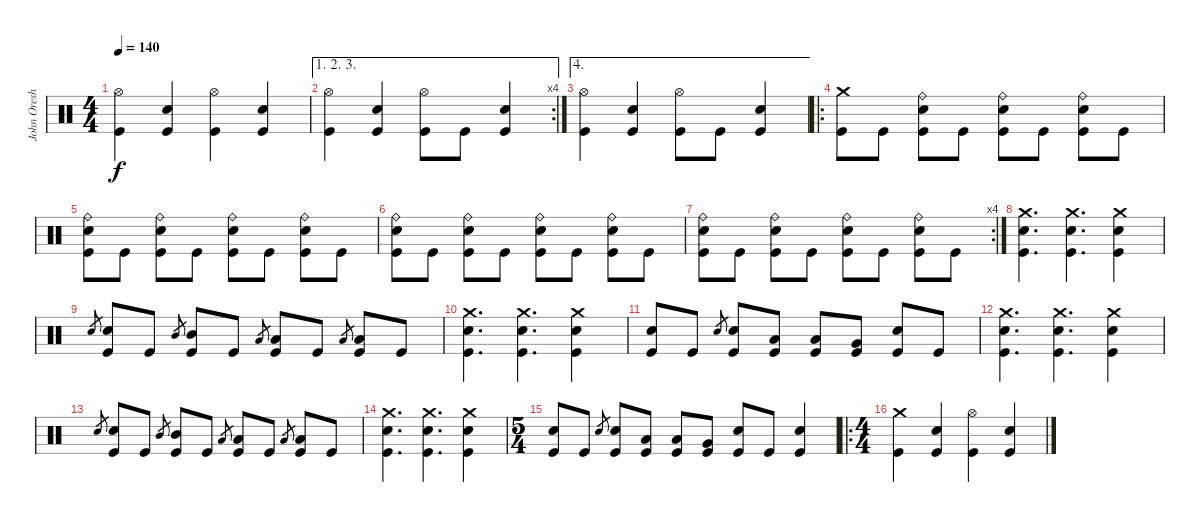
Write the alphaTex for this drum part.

\track ("John Oreshnick (drums)" "John Oresh") {instrument percussion}
\staff {score}
\articulation defaults
\ts (4 4)
\tempo 140
\clef neutral
\ks c
("Hi-Hat (open)" "Kick (hit)").4{dy f} ("Snare (hit) 2" "Kick (hit)").4 ("Hi-Hat (open)" "Kick (hit)").4 ("Snare (hit) 2" "Kick (hit)").4 |
\ae (1 2 3)
\rc 4
("Hi-Hat (open)" "Kick (hit)").4 ("Snare (hit) 2" "Kick (hit)").4 ("Hi-Hat (open)" "Kick (hit)").8 "Kick (hit)".8 ("Snare (hit) 2" "Kick (hit)").4 |
\ae 4
("Hi-Hat (open)" "Kick (hit)").4 ("Snare (hit) 2" "Kick (hit)").4 ("Hi-Hat (open)" "Kick (hit)").8 "Kick (hit)".8 ("Snare (hit) 2" "Kick (hit)").4 |
\ro
("Crash medium (hit)" "Kick (hit)").8 "Kick (hit)".8 ("Ride (bell)" "Snare (hit) 2" "Kick (hit)").8 "Kick (hit)".8 ("Ride (bell)" "Snare (hit) 2" "Kick (hit)").8 "Kick (hit)".8 ("Ride (bell)" "Snare (hit) 2" "Kick (hit)").8 "Kick (hit)".8 |
("Ride (bell)" "Snare (hit) 2" "Kick (hit)").8 "Kick (hit)".8 ("Ride (bell)" "Snare (hit) 2" "Kick (hit)").8 "Kick (hit)".8 ("Ride (bell)" "Snare (hit) 2" "Kick (hit)").8 "Kick (hit)".8 ("Ride (bell)" "Snare (hit) 2" "Kick (hit)").8 "Kick (hit)".8 |
("Ride (bell)" "Snare (hit) 2" "Kick (hit)").8 "Kick (hit)".8 ("Ride (bell)" "Snare (hit) 2" "Kick (hit)").8 "Kick (hit)".8 ("Ride (bell)" "Snare (hit) 2" "Kick (hit)").8 "Kick (hit)".8 ("Ride (bell)" "Snare (hit) 2" "Kick (hit)").8 "Kick (hit)".8 |
\rc 4
("Ride (bell)" "Snare (hit) 2" "Kick (hit)").8 "Kick (hit)".8 ("Ride (bell)" "Snare (hit) 2" "Kick (hit)").8 "Kick (hit)".8 ("Ride (bell)" "Snare (hit) 2" "Kick (hit)").8 "Kick (hit)".8 ("Ride (bell)" "Snare (hit) 2" "Kick (hit)").8 "Kick (hit)".8 |
("Crash medium (hit)" "Snare (hit) 2" "Kick (hit)").4{d} ("Crash medium (hit)" "Snare (hit) 2" "Kick (hit)").4{d} ("Crash medium (hit)" "Snare (hit) 2" "Kick (hit)").4 |
"Electric Snare (hit)".8{gr} ("Electric Snare (hit)" "Kick (hit)").8 "Kick (hit)".8 "Mid Tom (hit)".8{gr} ("Mid Tom (hit)" "Kick (hit)").8 "Kick (hit)".8 "Low Tom (hit)".8{gr} ("Low Tom (hit)" "Kick (hit)").8 "Kick (hit)".8 "Low Tom (hit)".8{gr} ("Low Tom (hit)" "Kick (hit)").8 "Kick (hit)".8 |
("Crash medium (hit)" "Snare (hit) 2" "Kick (hit)").4{d} ("Crash medium (hit)" "Snare (hit) 2" "Kick (hit)").4{d} ("Crash medium (hit)" "Snare (hit) 2" "Kick (hit)").4 |
("Electric Snare (hit)" "Kick (hit)").8 "Kick (hit)".8 "Electric Snare (hit)".8{gr} ("Electric Snare (hit)" "Kick (hit)").8 ("Low Tom (hit)" "Kick (hit)").8 ("Low Tom (hit)" "Kick (hit)").8 ("Very Low Tom (hit)" "Kick (hit)").8 ("Electric Snare (hit)" "Kick (hit)").8 "Kick (hit)".8 |
("Crash medium (hit)" "Snare (hit) 2" "Kick (hit)").4{d} ("Crash medium (hit)" "Snare (hit) 2" "Kick (hit)").4{d} ("Crash medium (hit)" "Snare (hit) 2" "Kick (hit)").4 |
"Electric Snare (hit)".8{gr} ("Electric Snare (hit)" "Kick (hit)").8 "Kick (hit)".8 "Mid Tom (hit)".8{gr} ("Mid Tom (hit)" "Kick (hit)").8 "Kick (hit)".8 "Low Tom (hit)".8{gr} ("Low Tom (hit)" "Kick (hit)").8 "Kick (hit)".8 "Low Tom (hit)".8{gr} ("Low Tom (hit)" "Kick (hit)").8 "Kick (hit)".8 |
("Crash medium (hit)" "Snare (hit) 2" "Kick (hit)").4{d} ("Crash medium (hit)" "Snare (hit) 2" "Kick (hit)").4{d} ("Crash medium (hit)" "Snare (hit) 2" "Kick (hit)").4 |
\ts (5 4)
("Electric Snare (hit)" "Kick (hit)").8 "Kick (hit)".8 "Electric Snare (hit)".8{gr} ("Electric Snare (hit)" "Kick (hit)").8 ("Low Tom (hit)" "Kick (hit)").8 ("Low Tom (hit)" "Kick (hit)").8 ("Very Low Tom (hit)" "Kick (hit)").8 ("Electric Snare (hit)" "Kick (hit)").8 "Kick (hit)".8 ("Electric Snare (hit)" "Kick (hit)").4 |
\ro
\ts (4 4)
("Crash medium (hit)" "Kick (hit)").4 ("Snare (hit) 2" "Kick (hit)").4 ("Hi-Hat (open)" "Kick (hit)").4 ("Snare (hit) 2" "Kick (hit)").4
